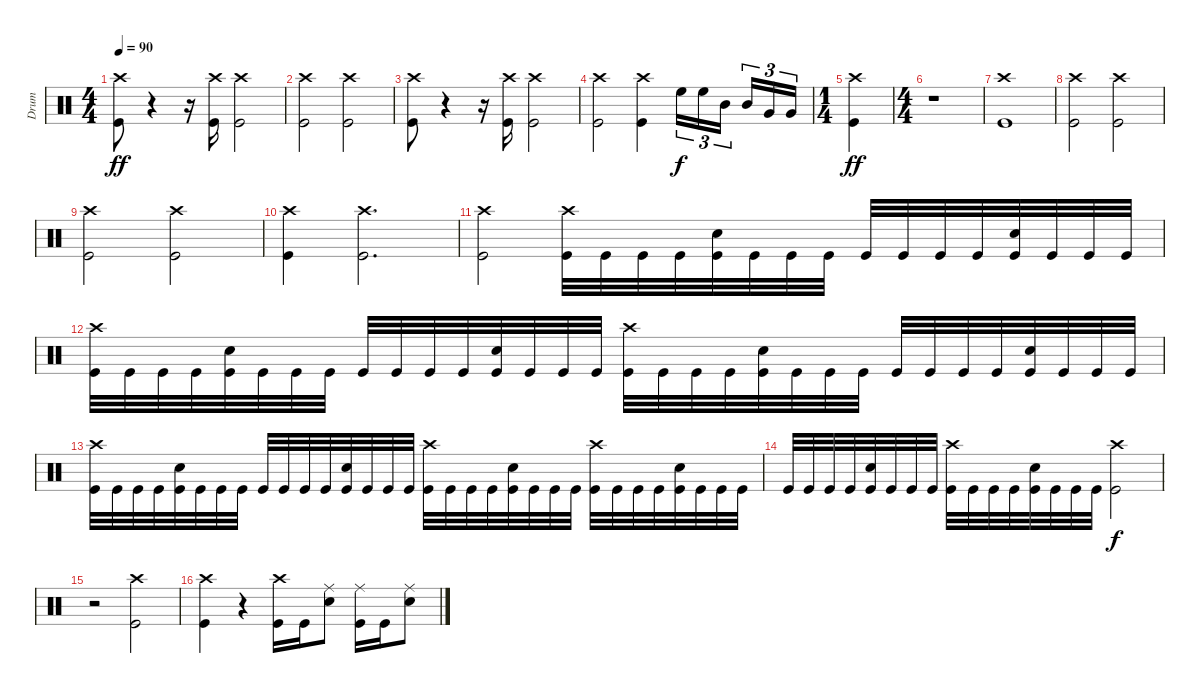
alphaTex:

\track ("Drum" "Drum") {instrument percussion}
\staff {score}
\articulation defaults
\ts (4 4)
\tempo 90
\clef neutral
\ks c
("Crash high (hit)" "Kick (hit)").8{dy ff} r.4 r.16 ("Crash high (hit)" "Kick (hit)").16 ("Crash high (hit)" "Kick (hit)").2 |
("Crash high (hit)" "Kick (hit)").2 ("Crash high (hit)" "Kick (hit)").2 |
("Crash high (hit)" "Kick (hit)").8 r.4 r.16 ("Crash high (hit)" "Kick (hit)").16 ("Crash high (hit)" "Kick (hit)").2 |
("Crash high (hit)" "Kick (hit)").2 ("Crash high (hit)" "Kick (hit)").4 "High Floor Tom (hit)".16{tu (3 2) dy f} "High Floor Tom (hit)".16{tu (3 2)} "Mid Tom (hit)".16{tu (3 2) beam splitsecondary} "Mid Tom (hit)".16{tu (3 2)} "Very Low Tom (hit)".16{tu (3 2)} "Very Low Tom (hit)".16{tu (3 2)} |
\ts (1 4)
("Crash high (hit)" "Kick (hit)").4{dy ff} |
\ts (4 4)
r.1 |
("Crash high (hit)" "Kick (hit)").1 |
("Crash high (hit)" "Kick (hit)").2 ("Crash high (hit)" "Kick (hit)").2 |
("Crash high (hit)" "Kick (hit)").2 ("Crash high (hit)" "Kick (hit)").2 |
("Crash high (hit)" "Kick (hit)").4 ("Crash high (hit)" "Kick (hit)").2{d} |
("Crash high (hit)" "Kick (hit)").2 ("Crash high (hit)" "Kick (hit)").32 "Kick (hit)".32 "Kick (hit)".32 "Kick (hit)".32 ("Snare (hit) 2" "Kick (hit)").32 "Kick (hit)".32 "Kick (hit)".32 "Kick (hit)".32 "Kick (hit)".32 "Kick (hit)".32 "Kick (hit)".32 "Kick (hit)".32 ("Snare (hit) 2" "Kick (hit)").32 "Kick (hit)".32 "Kick (hit)".32 "Kick (hit)".32 |
("Crash high (hit)" "Kick (hit)").32 "Kick (hit)".32 "Kick (hit)".32 "Kick (hit)".32 ("Snare (hit) 2" "Kick (hit)").32 "Kick (hit)".32 "Kick (hit)".32 "Kick (hit)".32 "Kick (hit)".32 "Kick (hit)".32 "Kick (hit)".32 "Kick (hit)".32 ("Snare (hit) 2" "Kick (hit)").32 "Kick (hit)".32 "Kick (hit)".32 "Kick (hit)".32 ("Crash high (hit)" "Kick (hit)").32 "Kick (hit)".32 "Kick (hit)".32 "Kick (hit)".32 ("Snare (hit) 2" "Kick (hit)").32 "Kick (hit)".32 "Kick (hit)".32 "Kick (hit)".32 "Kick (hit)".32 "Kick (hit)".32 "Kick (hit)".32 "Kick (hit)".32 ("Snare (hit) 2" "Kick (hit)").32 "Kick (hit)".32 "Kick (hit)".32 "Kick (hit)".32 |
("Crash high (hit)" "Kick (hit)").32 "Kick (hit)".32 "Kick (hit)".32 "Kick (hit)".32 ("Snare (hit) 2" "Kick (hit)").32 "Kick (hit)".32 "Kick (hit)".32 "Kick (hit)".32 "Kick (hit)".32 "Kick (hit)".32 "Kick (hit)".32 "Kick (hit)".32 ("Snare (hit) 2" "Kick (hit)").32 "Kick (hit)".32 "Kick (hit)".32 "Kick (hit)".32 ("Crash high (hit)" "Kick (hit)").32 "Kick (hit)".32 "Kick (hit)".32 "Kick (hit)".32 ("Snare (hit) 2" "Kick (hit)").32 "Kick (hit)".32 "Kick (hit)".32 "Kick (hit)".32 ("Crash high (hit)" "Kick (hit)").32 "Kick (hit)".32 "Kick (hit)".32 "Kick (hit)".32 ("Snare (hit) 2" "Kick (hit)").32 "Kick (hit)".32 "Kick (hit)".32 "Kick (hit)".32 |
"Kick (hit)".32 "Kick (hit)".32 "Kick (hit)".32 "Kick (hit)".32 ("Snare (hit) 2" "Kick (hit)").32 "Kick (hit)".32 "Kick (hit)".32 "Kick (hit)".32 ("Crash high (hit)" "Kick (hit)").32 "Kick (hit)".32 "Kick (hit)".32 "Kick (hit)".32 ("Snare (hit) 2" "Kick (hit)").32 "Kick (hit)".32 "Kick (hit)".32 "Kick (hit)".32 ("Crash high (hit)" "Kick (hit)").2{dy f} |
r.2 ("Crash high (hit)" "Kick (hit)").2 |
("Crash high (hit)" "Kick (hit)").4 r.4 ("Crash high (hit)" "Kick (hit)").16 "Kick (hit)".16 ("Ride (middle)" "Electric Snare (hit)").8 ("Ride (middle)" "Kick (hit)").16 "Kick (hit)".16 ("Ride (middle)" "Electric Snare (hit)").8
